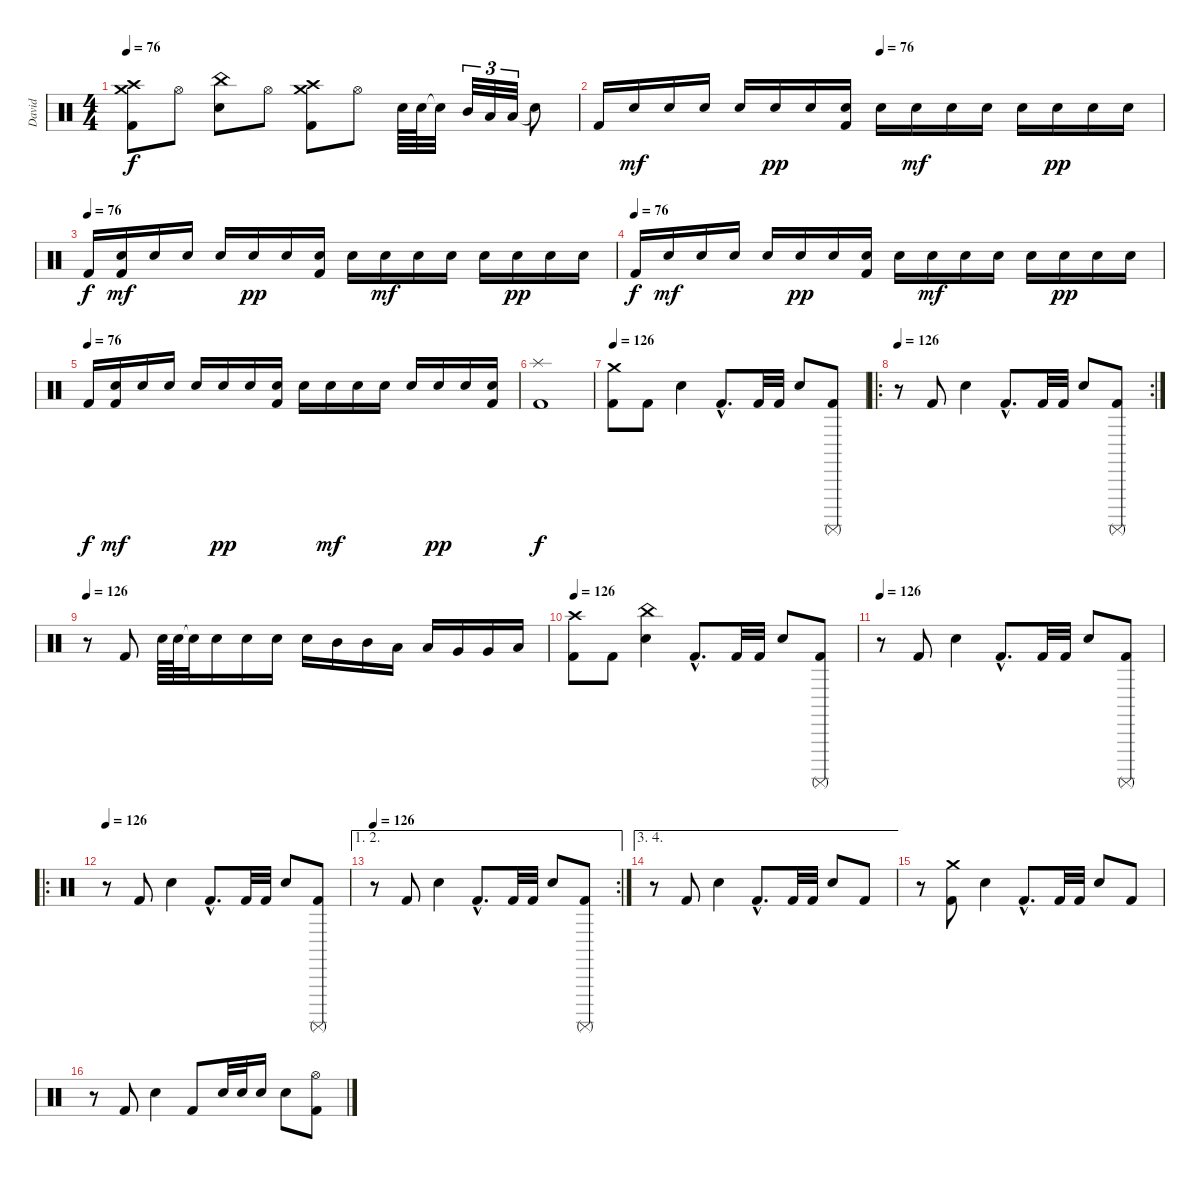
\track ("David" "David") {instrument percussion}
\staff {score}
\articulation defaults
\ts (4 4)
\tempo 76
\clef neutral
\ks c
("Crash medium (hit)" "Crash high (hit)" "Kick (hit) 2").8{dy f} "Hi-Hat (open)".8 ("China (hit)" "Snare (hit) 2").8 "Hi-Hat (open)".8 ("Crash medium (hit)" "Crash high (hit)" "Kick (hit) 2").8 "Hi-Hat (open)".8 "Snare (hit) 2".64 "Snare (hit) 2".64 "Snare (hit)"{t}.32 "Mid Tom (hit)".32{tu (3 2)} "Low Tom (hit)".32{tu (3 2)} "Low Tom (hit)".32{tu (3 2)} "Snare (hit)"{t}.8 |
\tempo (76 0.5)
"Kick (hit) 2".16 "Snare (hit) 2".16{dy mf} "Snare (hit) 2".16 "Snare (hit) 2".16 "Snare (hit) 2".16 "Snare (hit) 2".16{dy pp} "Snare (hit) 2".16 ("Snare (hit) 2" "Kick (hit) 2").16 "Snare (hit) 2".16 "Snare (hit) 2".16{dy mf} "Snare (hit) 2".16 "Snare (hit) 2".16 "Snare (hit) 2".16 "Snare (hit) 2".16{dy pp} "Snare (hit) 2".16 "Snare (hit) 2".16 |
\tempo (76)
"Kick (hit) 2".16{dy f} ("Snare (hit) 2" "Kick (hit) 2").16{dy mf} "Snare (hit) 2".16 "Snare (hit) 2".16 "Snare (hit) 2".16 "Snare (hit) 2".16{dy pp} "Snare (hit) 2".16 ("Snare (hit) 2" "Kick (hit) 2").16 "Snare (hit) 2".16 "Snare (hit) 2".16{dy mf} "Snare (hit) 2".16 "Snare (hit) 2".16 "Snare (hit) 2".16 "Snare (hit) 2".16{dy pp} "Snare (hit) 2".16 "Snare (hit) 2".16 |
\tempo (76)
"Kick (hit) 2".16{dy f} "Snare (hit) 2".16{dy mf} "Snare (hit) 2".16 "Snare (hit) 2".16 "Snare (hit) 2".16 "Snare (hit) 2".16{dy pp} "Snare (hit) 2".16 ("Snare (hit) 2" "Kick (hit) 2").16 "Snare (hit) 2".16 "Snare (hit) 2".16{dy mf} "Snare (hit) 2".16 "Snare (hit) 2".16 "Snare (hit) 2".16 "Snare (hit) 2".16{dy pp} "Snare (hit) 2".16 "Snare (hit) 2".16 |
\tempo (76)
"Kick (hit) 2".16{dy f} ("Snare (hit) 2" "Kick (hit) 2").16{dy mf} "Snare (hit) 2".16 "Snare (hit) 2".16 "Snare (hit) 2".16 "Snare (hit) 2".16{dy pp} "Snare (hit) 2".16 ("Snare (hit) 2" "Kick (hit) 2").16 "Snare (hit) 2".16 "Snare (hit) 2".16{dy mf} "Snare (hit) 2".16 "Snare (hit) 2".16 "Snare (hit) 2".16 "Snare (hit) 2".16{dy pp} "Snare (hit) 2".16 ("Snare (hit) 2" "Kick (hit) 2").16 |
("Splash (hit)" "Kick (hit) 2").1{dy f} |
\tempo 126
("Crash medium (hit)" "Kick (hit) 2").8 "Kick (hit) 2".8 "Snare (hit) 2".4 "Kick (hit) 2"{hac}.8{d} "Kick (hit) 2".32 "Kick (hit) 2".32 "Snare (hit) 2".8 ("Surdo (mute)" "Kick (hit) 2").8 |
\ro
\rc 2
\tempo 126
r.8 "Kick (hit) 2".8 "Snare (hit) 2".4 "Kick (hit) 2"{hac}.8{d} "Kick (hit) 2".32 "Kick (hit) 2".32 "Snare (hit) 2".8 ("Surdo (mute)" "Kick (hit) 2").8 |
\tempo 126
r.8 "Kick (hit) 2".8 "Snare (hit) 2".64 "Snare (hit) 2".64 "Snare (hit)"{t}.32 "Snare (hit) 2".16 "Snare (hit) 2".16 "Snare (hit) 2".16 "Snare (hit) 2".16 "Mid Tom (hit)".16 "Mid Tom (hit)".16 "Low Tom (hit)".16 "Low Tom (hit)".16 "Very Low Tom (hit)".16 "Very Low Tom (hit)".16 "Low Floor Tom (hit)".16 |
\tempo 126
("Crash high (hit)" "Kick (hit) 2").8 "Kick (hit) 2".8 ("China (hit)" "Snare (hit) 2").4 "Kick (hit) 2"{hac}.8{d} "Kick (hit) 2".32 "Kick (hit) 2".32 "Snare (hit) 2".8 ("Surdo (mute)" "Kick (hit) 2").8 |
\tempo 126
r.8 "Kick (hit) 2".8 "Snare (hit) 2".4 "Kick (hit) 2"{hac}.8{d} "Kick (hit) 2".32 "Kick (hit) 2".32 "Snare (hit) 2".8 ("Surdo (mute)" "Kick (hit) 2").8 |
\ro
\tempo 126
r.8 "Kick (hit) 2".8 "Snare (hit) 2".4 "Kick (hit) 2"{hac}.8{d} "Kick (hit) 2".32 "Kick (hit) 2".32 "Snare (hit) 2".8 ("Surdo (mute)" "Kick (hit) 2").8 |
\ae (1 2)
\rc 2
\tempo 126
r.8 "Kick (hit) 2".8 "Snare (hit) 2".4 "Kick (hit) 2"{hac}.8{d} "Kick (hit) 2".32 "Kick (hit) 2".32 "Snare (hit) 2".8 ("Surdo (mute)" "Kick (hit) 2").8 |
\ae (3 4)
r.8 "Kick (hit) 2".8 "Snare (hit) 2".4 "Kick (hit) 2"{hac}.8{d} "Kick (hit) 2".32 "Kick (hit) 2".32 "Snare (hit) 2".8 "Kick (hit) 2".8 |
r.8 ("Crash medium (hit)" "Kick (hit) 2").8 "Snare (hit) 2".4 "Kick (hit) 2"{hac}.8{d} "Kick (hit) 2".32 "Kick (hit) 2".32 "Snare (hit) 2".8 "Kick (hit) 2".8 |
r.8 "Kick (hit) 2".8 "Snare (hit) 2".4 "Kick (hit) 2".8 "Snare (hit) 2".32 "Snare (hit) 2".32 "Snare (hit) 2".16 "Snare (hit) 2".8 ("Hi-Hat (open)" "Kick (hit) 2").8
